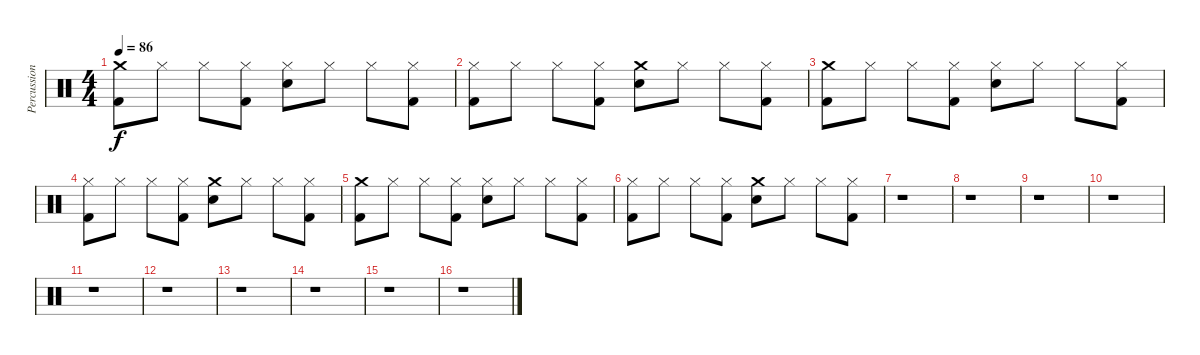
\track ("Percussion" "Percussion") {instrument percussion}
\staff {score}
\articulation defaults
\ts (4 4)
\tempo 86
\clef neutral
\ks c
("Kick (hit) 2" "Crash medium (hit)").8{dy f} "Hi-Hat (closed)".8 "Hi-Hat (closed)".8 ("Kick (hit) 2" "Hi-Hat (closed)").8 ("Electric Snare (hit)" "Hi-Hat (closed)").8 "Hi-Hat (closed)".8 "Hi-Hat (closed)".8 ("Kick (hit) 2" "Hi-Hat (closed)").8 |
("Kick (hit) 2" "Hi-Hat (closed)").8 "Hi-Hat (closed)".8 "Hi-Hat (closed)".8 ("Kick (hit) 2" "Hi-Hat (closed)").8 ("Crash medium (hit)" "Electric Snare (hit)").8 "Hi-Hat (closed)".8 "Hi-Hat (closed)".8 ("Kick (hit) 2" "Hi-Hat (closed)").8 |
("Kick (hit) 2" "Crash medium (hit)").8 "Hi-Hat (closed)".8 "Hi-Hat (closed)".8 ("Kick (hit) 2" "Hi-Hat (closed)").8 ("Electric Snare (hit)" "Hi-Hat (closed)").8 "Hi-Hat (closed)".8 "Hi-Hat (closed)".8 ("Kick (hit) 2" "Hi-Hat (closed)").8 |
("Kick (hit) 2" "Hi-Hat (closed)").8 "Hi-Hat (closed)".8 "Hi-Hat (closed)".8 ("Kick (hit) 2" "Hi-Hat (closed)").8 ("Crash medium (hit)" "Electric Snare (hit)").8 "Hi-Hat (closed)".8 "Hi-Hat (closed)".8 ("Kick (hit) 2" "Hi-Hat (closed)").8 |
("Kick (hit) 2" "Crash medium (hit)").8 "Hi-Hat (closed)".8 "Hi-Hat (closed)".8 ("Kick (hit) 2" "Hi-Hat (closed)").8 ("Electric Snare (hit)" "Hi-Hat (closed)").8 "Hi-Hat (closed)".8 "Hi-Hat (closed)".8 ("Kick (hit) 2" "Hi-Hat (closed)").8 |
("Kick (hit) 2" "Hi-Hat (closed)").8 "Hi-Hat (closed)".8 "Hi-Hat (closed)".8 ("Kick (hit) 2" "Hi-Hat (closed)").8 ("Crash medium (hit)" "Electric Snare (hit)").8 "Hi-Hat (closed)".8 "Hi-Hat (closed)".8 ("Kick (hit) 2" "Hi-Hat (closed)").8 |
r.1 |
r.1 |
r.1 |
r.1 |
r.1 |
r.1 |
r.1 |
r.1 |
r.1 |
r.1
